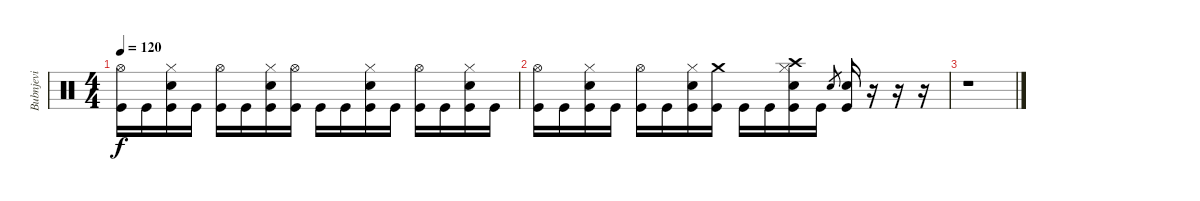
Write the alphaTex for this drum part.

\track ("Bubnjevi" "Bubnjevi") {instrument percussion}
\staff {score}
\articulation defaults
\ts (4 4)
\tempo 120
\clef neutral
\ks c
("Hi-Hat (open)" "Kick (hit)").16{dy f} "Kick (hit)".16 ("Electric Snare (hit)" "Hi-Hat (closed)" "Kick (hit)").16 "Kick (hit)".16 ("Hi-Hat (open)" "Kick (hit)").16 "Kick (hit)".16 ("Electric Snare (hit)" "Hi-Hat (closed)" "Kick (hit)").16 ("Hi-Hat (open)" "Kick (hit)").16 "Kick (hit)".16 "Kick (hit)".16 ("Electric Snare (hit)" "Hi-Hat (closed)" "Kick (hit)").16 "Kick (hit)".16 ("Hi-Hat (open)" "Kick (hit)").16 "Kick (hit)".16 ("Electric Snare (hit)" "Hi-Hat (closed)" "Kick (hit)").16 "Kick (hit)".16 |
("Hi-Hat (open)" "Kick (hit)").16 "Kick (hit)".16 ("Electric Snare (hit)" "Hi-Hat (closed)" "Kick (hit)").16 "Kick (hit)".16 ("Hi-Hat (open)" "Kick (hit)").16 "Kick (hit)".16 ("Electric Snare (hit)" "Hi-Hat (closed)" "Kick (hit)").16 ("Crash medium (hit)" "Kick (hit)").16 "Kick (hit)".16 "Kick (hit)".16 ("Crash high (hit)" "Electric Snare (hit)" "Hi-Hat (closed)" "Kick (hit)").16 "Kick (hit)".16 "Electric Snare (hit)".8{gr} ("Electric Snare (hit)" "Kick (hit)").16 r.16 r.16 r.16 |
r.1
